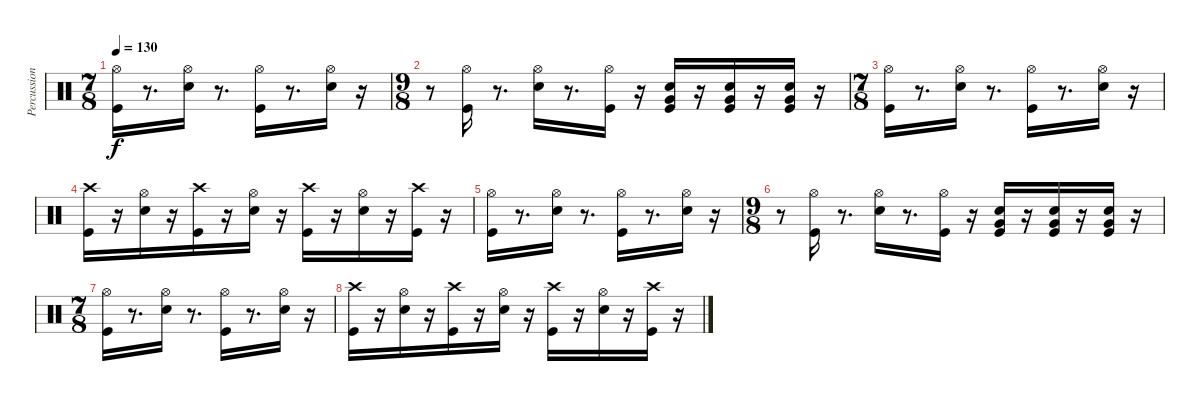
\track ("Percussions" "Percussion") {instrument percussion}
\staff {score}
\articulation defaults
\ts (7 8)
\tempo 130
\clef neutral
\ks c
("Hi-Hat (open)" "Kick (hit)").16{dy f} r.8{d} ("Hi-Hat (open)" "Electric Snare (hit)").16 r.8{d} ("Kick (hit)" "Hi-Hat (open)").16 r.8{d} ("Hi-Hat (open)" "Electric Snare (hit)").16 r.16 |
\ts (9 8)
r.8 ("Kick (hit)" "Hi-Hat (open)").16 r.8{d} ("Electric Snare (hit)" "Hi-Hat (open)").16 r.8{d} ("Kick (hit)" "Hi-Hat (open)").16 r.16 ("Very Low Tom (hit)" "Electric Snare (hit)" "Kick (hit)").16 r.16 ("Very Low Tom (hit)" "Kick (hit)" "Electric Snare (hit)").16 r.16 ("Kick (hit)" "Very Low Tom (hit)" "Electric Snare (hit)").16 r.16 |
\ts (7 8)
("Kick (hit)" "Hi-Hat (open)").16 r.8{d} ("Electric Snare (hit)" "Hi-Hat (open)").16 r.8{d} ("Kick (hit)" "Hi-Hat (open)").16 r.8{d} ("Electric Snare (hit)" "Hi-Hat (open)").16 r.16 |
("Crash high (hit)" "Kick (hit)").16 r.16 ("Electric Snare (hit)" "Hi-Hat (open)").16 r.16 ("Kick (hit)" "Crash high (hit)").16 r.16 ("Hi-Hat (open)" "Electric Snare (hit)").16 r.16 ("Kick (hit)" "Crash high (hit)").16 r.16 ("Hi-Hat (open)" "Electric Snare (hit)").16 r.16 ("Crash high (hit)" "Kick (hit)").16 r.16 |
("Hi-Hat (open)" "Kick (hit)").16 r.8{d} ("Hi-Hat (open)" "Electric Snare (hit)").16 r.8{d} ("Kick (hit)" "Hi-Hat (open)").16 r.8{d} ("Hi-Hat (open)" "Electric Snare (hit)").16 r.16 |
\ts (9 8)
r.8 ("Kick (hit)" "Hi-Hat (open)").16 r.8{d} ("Electric Snare (hit)" "Hi-Hat (open)").16 r.8{d} ("Kick (hit)" "Hi-Hat (open)").16 r.16 ("Very Low Tom (hit)" "Electric Snare (hit)" "Kick (hit)").16 r.16 ("Very Low Tom (hit)" "Kick (hit)" "Electric Snare (hit)").16 r.16 ("Kick (hit)" "Very Low Tom (hit)" "Electric Snare (hit)").16 r.16 |
\ts (7 8)
("Hi-Hat (open)" "Kick (hit)").16 r.8{d} ("Hi-Hat (open)" "Electric Snare (hit)").16 r.8{d} ("Kick (hit)" "Hi-Hat (open)").16 r.8{d} ("Hi-Hat (open)" "Electric Snare (hit)").16 r.16 |
("Crash high (hit)" "Kick (hit)").16 r.16 ("Electric Snare (hit)" "Hi-Hat (open)").16 r.16 ("Kick (hit)" "Crash high (hit)").16 r.16 ("Hi-Hat (open)" "Electric Snare (hit)").16 r.16 ("Kick (hit)" "Crash high (hit)").16 r.16 ("Hi-Hat (open)" "Electric Snare (hit)").16 r.16 ("Crash high (hit)" "Kick (hit)").16 r.16
